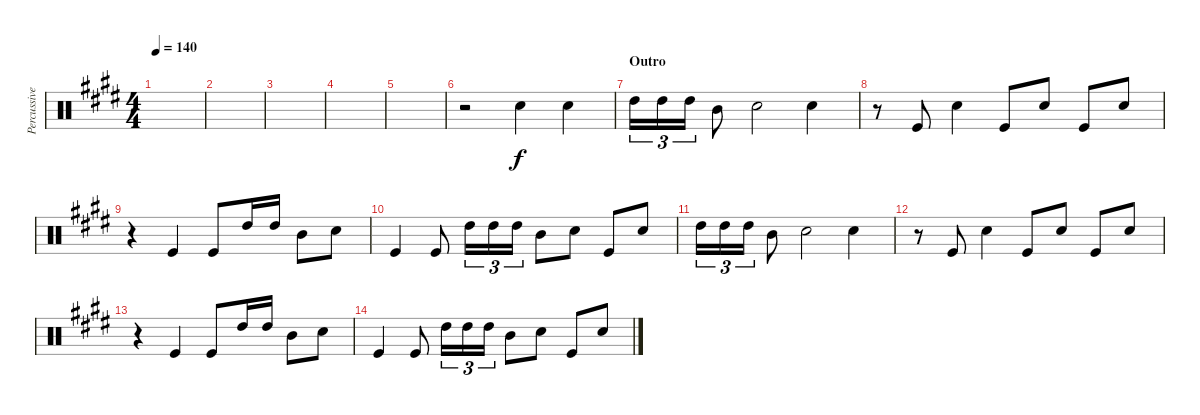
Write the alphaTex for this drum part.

\track ("Percussives" "Percussive") {instrument percussion}
\staff {score}
\articulation defaults
\ts (4 4)
\tempo 140
\clef neutral
\ks e
|
|
|
|
|
r.2 "Snare (hit) 2".4 "Snare (hit) 2".4 |
\section ("" "Outro")
"High Tom (hit)".16{tu (3 2)} "High Tom (hit)".16{tu (3 2)} "High Tom (hit)".16{tu (3 2)} "Mid Tom (hit)".8 "Snare (hit) 2".2 "Snare (hit) 2".4 |
r.8 "Kick (hit)".8 "Snare (hit) 2".4 "Kick (hit)".8 "Snare (hit) 2".8 "Kick (hit)".8 "Snare (hit) 2".8 |
r.4 "Kick (hit)".4 "Kick (hit)".8 "High Tom (hit)".16 "High Tom (hit)".16 "Mid Tom (hit)".8 "Snare (hit) 2".8 |
"Kick (hit)".4 "Kick (hit)".8 "High Tom (hit)".16{tu (3 2)} "High Tom (hit)".16{tu (3 2)} "High Tom (hit)".16{tu (3 2)} "Mid Tom (hit)".8 "Snare (hit) 2".8 "Kick (hit)".8 "Snare (hit) 2".8 |
"High Tom (hit)".16{tu (3 2)} "High Tom (hit)".16{tu (3 2)} "High Tom (hit)".16{tu (3 2)} "Mid Tom (hit)".8 "Snare (hit) 2".2 "Snare (hit) 2".4 |
r.8 "Kick (hit)".8 "Snare (hit) 2".4 "Kick (hit)".8 "Snare (hit) 2".8 "Kick (hit)".8 "Snare (hit) 2".8 |
r.4 "Kick (hit)".4 "Kick (hit)".8 "High Tom (hit)".16 "High Tom (hit)".16 "Mid Tom (hit)".8 "Snare (hit) 2".8 |
"Kick (hit)".4 "Kick (hit)".8 "High Tom (hit)".16{tu (3 2)} "High Tom (hit)".16{tu (3 2)} "High Tom (hit)".16{tu (3 2)} "Mid Tom (hit)".8 "Snare (hit) 2".8 "Kick (hit)".8 "Snare (hit) 2".8
